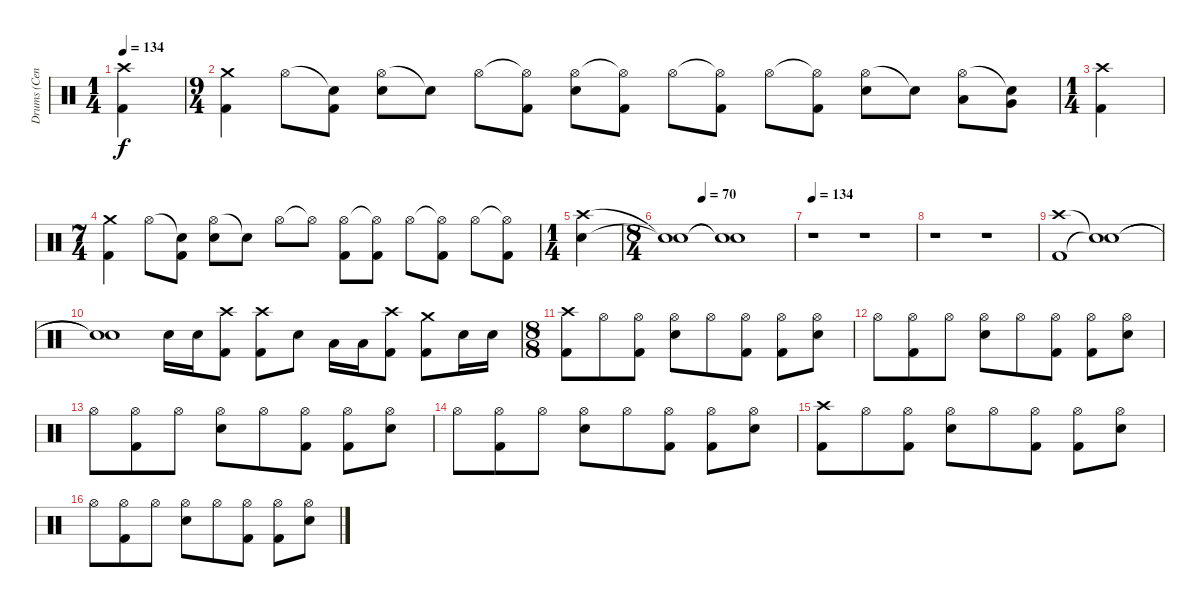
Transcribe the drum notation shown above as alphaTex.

\track ("Drums (Cenk)" "Drums (Cen") {instrument percussion}
\staff {score}
\articulation defaults
\ts (1 4)
\tempo 134
\clef neutral
\ks c
("Crash high (hit)" "Kick (hit) 2").4{dy f} |
\ts (9 4)
("Crash medium (hit)" "Kick (hit) 2").4 "Hi-Hat (open)".8 ("Snare (hit)"{t} "Kick (hit) 2").8 ("Hi-Hat (open)" "Snare (hit) 2").8 "Snare (hit)"{t}.8 "Hi-Hat (open)".8 ("Hi-Hat (open)"{t} "Kick (hit) 2").8 ("Hi-Hat (open)" "Snare (hit) 2").8 ("Hi-Hat (open)"{t} "Kick (hit) 2").8 "Hi-Hat (open)".8 ("Hi-Hat (open)"{t} "Kick (hit) 2").8 "Hi-Hat (open)".8 ("Hi-Hat (open)"{t} "Kick (hit) 2").8 ("Hi-Hat (open)" "Snare (hit) 2").8 "Snare (hit)"{t}.8 ("Hi-Hat (open)" "Low Tom (hit)").8 ("Snare (hit)"{t} "Very Low Tom (hit)").8 |
\ts (1 4)
("Crash high (hit)" "Kick (hit) 2").4 |
\ts (7 4)
("Crash medium (hit)" "Kick (hit) 2").4 "Hi-Hat (open)".8 ("Snare (hit)"{t} "Kick (hit) 2").8 ("Hi-Hat (open)" "Snare (hit) 2").8 "Snare (hit)"{t}.8 "Hi-Hat (open)".8 "Hi-Hat (open)"{t}.8 ("Hi-Hat (open)" "Kick (hit) 2").8 ("Hi-Hat (open)"{t} "Kick (hit) 2").8 "Hi-Hat (open)".8 ("Hi-Hat (open)"{t} "Kick (hit) 2").8 "Hi-Hat (open)".8 ("Hi-Hat (open)"{t} "Kick (hit) 2").8 |
\ts (1 4)
("Crash high (hit)" "Snare (hit) 2").4 |
\ts (8 4)
\tempo (70 0.25)
("Snare (hit)"{t} "Snare (hit)"{t}).1 ("Snare (hit)"{t} "Snare (hit)"{t}).1 |
\tempo 134
r.1 r.1 |
r.1 r.1 |
("Crash high (hit)" "Kick (hit) 2").1 ("Snare (hit)"{t} "Snare (hit)"{t}).1 |
("Snare (hit)"{t} "Snare (hit)"{t}).1 "Snare (hit) 2".16 "Snare (hit) 2".16 ("Crash high (hit)" "Kick (hit) 2").8 ("Crash high (hit)" "Kick (hit) 2").8 "Snare (hit) 2".8 "Low Tom (hit)".16 "Low Tom (hit)".16 ("Crash high (hit)" "Kick (hit) 2").8 ("Crash medium (hit)" "Kick (hit) 2").8 "Snare (hit) 2".16 "Snare (hit) 2".16 |
\ts (8 8)
("Crash high (hit)" "Kick (hit) 2").8 "Hi-Hat (open)".8 ("Hi-Hat (open)" "Kick (hit) 2").8 ("Hi-Hat (open)" "Snare (hit) 2").8 "Hi-Hat (open)".8 ("Hi-Hat (open)" "Kick (hit) 2").8 ("Hi-Hat (open)" "Kick (hit) 2").8 ("Hi-Hat (open)" "Snare (hit) 2").8 |
"Hi-Hat (open)".8 ("Hi-Hat (open)" "Kick (hit) 2").8 "Hi-Hat (open)".8 ("Hi-Hat (open)" "Snare (hit) 2").8 "Hi-Hat (open)".8 ("Hi-Hat (open)" "Kick (hit) 2").8 ("Hi-Hat (open)" "Kick (hit) 2").8 ("Hi-Hat (open)" "Snare (hit) 2").8 |
"Hi-Hat (open)".8 ("Hi-Hat (open)" "Kick (hit) 2").8 "Hi-Hat (open)".8 ("Hi-Hat (open)" "Snare (hit) 2").8 "Hi-Hat (open)".8 ("Hi-Hat (open)" "Kick (hit) 2").8 ("Hi-Hat (open)" "Kick (hit) 2").8 ("Hi-Hat (open)" "Snare (hit) 2").8 |
"Hi-Hat (open)".8 ("Hi-Hat (open)" "Kick (hit) 2").8 "Hi-Hat (open)".8 ("Hi-Hat (open)" "Snare (hit) 2").8 "Hi-Hat (open)".8 ("Hi-Hat (open)" "Kick (hit) 2").8 ("Hi-Hat (open)" "Kick (hit) 2").8 ("Hi-Hat (open)" "Snare (hit) 2").8 |
("Crash high (hit)" "Kick (hit) 2").8 "Hi-Hat (open)".8 ("Hi-Hat (open)" "Kick (hit) 2").8 ("Hi-Hat (open)" "Snare (hit) 2").8 "Hi-Hat (open)".8 ("Hi-Hat (open)" "Kick (hit) 2").8 ("Hi-Hat (open)" "Kick (hit) 2").8 ("Hi-Hat (open)" "Snare (hit) 2").8 |
"Hi-Hat (open)".8 ("Hi-Hat (open)" "Kick (hit) 2").8 "Hi-Hat (open)".8 ("Hi-Hat (open)" "Snare (hit) 2").8 "Hi-Hat (open)".8 ("Hi-Hat (open)" "Kick (hit) 2").8 ("Hi-Hat (open)" "Kick (hit) 2").8 ("Hi-Hat (open)" "Snare (hit) 2").8
